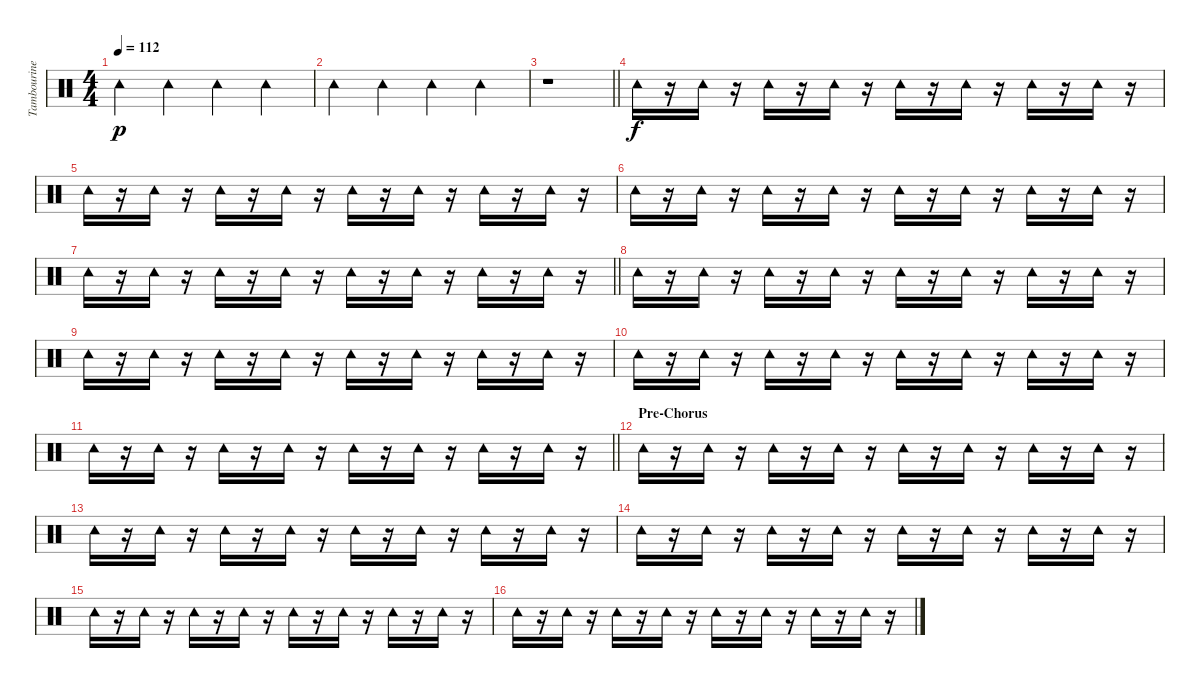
\track ("Tambourine" "Tambourine") {instrument percussion}
\staff {score}
\articulation defaults
\ts (4 4)
\tempo 112
\clef neutral
\ks c "Tambourine (hit)".4{dy p} "Tambourine (hit)".4 "Tambourine (hit)".4 "Tambourine (hit)".4
|
"Tambourine (hit)".4 "Tambourine (hit)".4 "Tambourine (hit)".4 "Tambourine (hit)".4 |
\barLineRight lightlight
r.1 |
"Tambourine (hit)".16{dy f} r.16 "Tambourine (hit)".16 r.16 "Tambourine (hit)".16 r.16 "Tambourine (hit)".16 r.16 "Tambourine (hit)".16 r.16 "Tambourine (hit)".16 r.16 "Tambourine (hit)".16 r.16 "Tambourine (hit)".16 r.16 |
"Tambourine (hit)".16 r.16 "Tambourine (hit)".16 r.16 "Tambourine (hit)".16 r.16 "Tambourine (hit)".16 r.16 "Tambourine (hit)".16 r.16 "Tambourine (hit)".16 r.16 "Tambourine (hit)".16 r.16 "Tambourine (hit)".16 r.16 |
"Tambourine (hit)".16 r.16 "Tambourine (hit)".16 r.16 "Tambourine (hit)".16 r.16 "Tambourine (hit)".16 r.16 "Tambourine (hit)".16 r.16 "Tambourine (hit)".16 r.16 "Tambourine (hit)".16 r.16 "Tambourine (hit)".16 r.16 |
\barLineRight lightlight "Tambourine (hit)".16
r.16 "Tambourine (hit)".16 r.16 "Tambourine (hit)".16 r.16 "Tambourine (hit)".16 r.16 "Tambourine (hit)".16 r.16 "Tambourine (hit)".16 r.16 "Tambourine (hit)".16 r.16 "Tambourine (hit)".16 r.16 |
"Tambourine (hit)".16 r.16 "Tambourine (hit)".16 r.16 "Tambourine (hit)".16 r.16 "Tambourine (hit)".16 r.16 "Tambourine (hit)".16 r.16 "Tambourine (hit)".16 r.16 "Tambourine (hit)".16 r.16 "Tambourine (hit)".16 r.16 |
"Tambourine (hit)".16 r.16 "Tambourine (hit)".16 r.16 "Tambourine (hit)".16 r.16 "Tambourine (hit)".16 r.16 "Tambourine (hit)".16 r.16 "Tambourine (hit)".16 r.16 "Tambourine (hit)".16 r.16 "Tambourine (hit)".16 r.16 |
"Tambourine (hit)".16 r.16 "Tambourine (hit)".16 r.16 "Tambourine (hit)".16 r.16 "Tambourine (hit)".16 r.16 "Tambourine (hit)".16 r.16 "Tambourine (hit)".16 r.16 "Tambourine (hit)".16 r.16 "Tambourine (hit)".16 r.16 |
\barLineRight lightlight "Tambourine (hit)".16
r.16 "Tambourine (hit)".16 r.16 "Tambourine (hit)".16 r.16 "Tambourine (hit)".16 r.16 "Tambourine (hit)".16 r.16 "Tambourine (hit)".16 r.16 "Tambourine (hit)".16 r.16 "Tambourine (hit)".16 r.16 |
\section ("" "Pre-Chorus")
"Tambourine (hit)".16 r.16 "Tambourine (hit)".16 r.16 "Tambourine (hit)".16 r.16 "Tambourine (hit)".16 r.16 "Tambourine (hit)".16 r.16 "Tambourine (hit)".16 r.16 "Tambourine (hit)".16 r.16 "Tambourine (hit)".16 r.16 |
"Tambourine (hit)".16 r.16 "Tambourine (hit)".16 r.16 "Tambourine (hit)".16 r.16 "Tambourine (hit)".16 r.16 "Tambourine (hit)".16 r.16 "Tambourine (hit)".16 r.16 "Tambourine (hit)".16 r.16 "Tambourine (hit)".16 r.16 |
"Tambourine (hit)".16 r.16 "Tambourine (hit)".16 r.16 "Tambourine (hit)".16 r.16 "Tambourine (hit)".16 r.16 "Tambourine (hit)".16 r.16 "Tambourine (hit)".16 r.16 "Tambourine (hit)".16 r.16 "Tambourine (hit)".16 r.16 |
"Tambourine (hit)".16 r.16 "Tambourine (hit)".16 r.16 "Tambourine (hit)".16 r.16 "Tambourine (hit)".16 r.16 "Tambourine (hit)".16 r.16 "Tambourine (hit)".16 r.16 "Tambourine (hit)".16 r.16 "Tambourine (hit)".16 r.16 |
"Tambourine (hit)".16 r.16 "Tambourine (hit)".16 r.16 "Tambourine (hit)".16 r.16 "Tambourine (hit)".16 r.16 "Tambourine (hit)".16 r.16 "Tambourine (hit)".16 r.16 "Tambourine (hit)".16 r.16 "Tambourine (hit)".16 r.16
